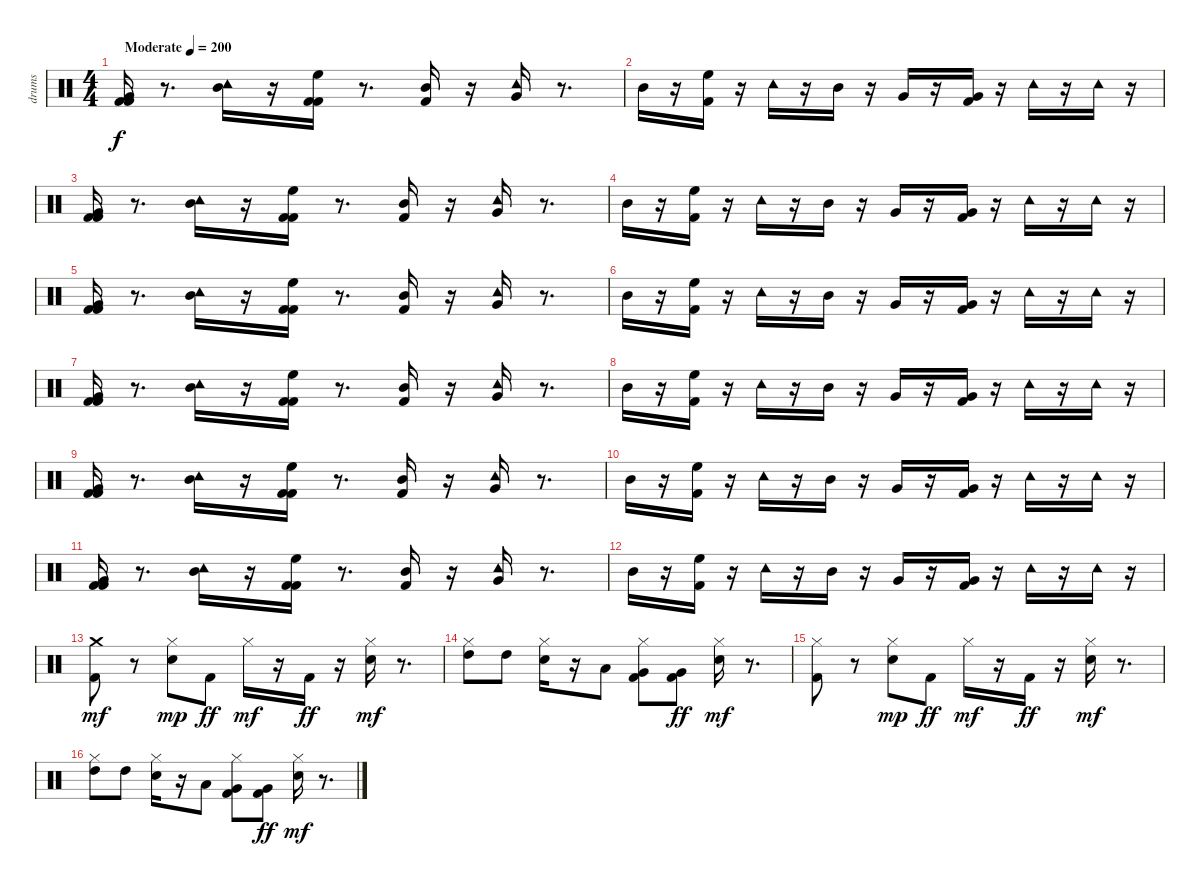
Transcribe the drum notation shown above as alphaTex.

\track ("drums" "drums") {instrument percussion}
\staff {score}
\articulation defaults
\ts (4 4)
\tempo (200 "Moderate")
\clef neutral
\ks c
("Very Low Tom (hit)" "Kick (hit) 2" "Kick (hit) 2").16{dy f} r.8{d} ("Tambourine (hit)" "Mid Tom (hit)").16 r.16 ("High Floor Tom (hit)" "Kick (hit) 2" "Kick (hit) 2").16 r.8{d} ("Kick (hit) 2" "Mid Tom (hit)").16 r.16 ("Tambourine (hit)" "Very Low Tom (hit)").16 r.8{d} |
"Mid Tom (hit)".16 r.16 ("Kick (hit) 2" "High Floor Tom (hit)").16 r.16 "Tambourine (hit)".16 r.16 "Mid Tom (hit)".16 r.16 "Very Low Tom (hit)".16 r.16 ("Kick (hit) 2" "Very Low Tom (hit)").16 r.16 "Tambourine (hit)".16 r.16 "Tambourine (hit)".16 r.16 |
("Very Low Tom (hit)" "Kick (hit) 2" "Kick (hit) 2").16 r.8{d} ("Tambourine (hit)" "Mid Tom (hit)").16 r.16 ("High Floor Tom (hit)" "Kick (hit) 2" "Kick (hit) 2").16 r.8{d} ("Kick (hit) 2" "Mid Tom (hit)").16 r.16 ("Tambourine (hit)" "Very Low Tom (hit)").16 r.8{d} |
"Mid Tom (hit)".16 r.16 ("Kick (hit) 2" "High Floor Tom (hit)").16 r.16 "Tambourine (hit)".16 r.16 "Mid Tom (hit)".16 r.16 "Very Low Tom (hit)".16 r.16 ("Kick (hit) 2" "Very Low Tom (hit)").16 r.16 "Tambourine (hit)".16 r.16 "Tambourine (hit)".16 r.16 |
("Very Low Tom (hit)" "Kick (hit) 2" "Kick (hit) 2").16 r.8{d} ("Tambourine (hit)" "Mid Tom (hit)").16 r.16 ("High Floor Tom (hit)" "Kick (hit) 2" "Kick (hit) 2").16 r.8{d} ("Kick (hit) 2" "Mid Tom (hit)").16 r.16 ("Tambourine (hit)" "Very Low Tom (hit)").16 r.8{d} |
"Mid Tom (hit)".16 r.16 ("Kick (hit) 2" "High Floor Tom (hit)").16 r.16 "Tambourine (hit)".16 r.16 "Mid Tom (hit)".16 r.16 "Very Low Tom (hit)".16 r.16 ("Kick (hit) 2" "Very Low Tom (hit)").16 r.16 "Tambourine (hit)".16 r.16 "Tambourine (hit)".16 r.16 |
("Very Low Tom (hit)" "Kick (hit) 2" "Kick (hit) 2").16 r.8{d} ("Tambourine (hit)" "Mid Tom (hit)").16 r.16 ("High Floor Tom (hit)" "Kick (hit) 2" "Kick (hit) 2").16 r.8{d} ("Kick (hit) 2" "Mid Tom (hit)").16 r.16 ("Tambourine (hit)" "Very Low Tom (hit)").16 r.8{d} |
"Mid Tom (hit)".16 r.16 ("Kick (hit) 2" "High Floor Tom (hit)").16 r.16 "Tambourine (hit)".16 r.16 "Mid Tom (hit)".16 r.16 "Very Low Tom (hit)".16 r.16 ("Kick (hit) 2" "Very Low Tom (hit)").16 r.16 "Tambourine (hit)".16 r.16 "Tambourine (hit)".16 r.16 |
("Very Low Tom (hit)" "Kick (hit) 2" "Kick (hit) 2").16 r.8{d} ("Tambourine (hit)" "Mid Tom (hit)").16 r.16 ("High Floor Tom (hit)" "Kick (hit) 2" "Kick (hit) 2").16 r.8{d} ("Kick (hit) 2" "Mid Tom (hit)").16 r.16 ("Tambourine (hit)" "Very Low Tom (hit)").16 r.8{d} |
"Mid Tom (hit)".16 r.16 ("Kick (hit) 2" "High Floor Tom (hit)").16 r.16 "Tambourine (hit)".16 r.16 "Mid Tom (hit)".16 r.16 "Very Low Tom (hit)".16 r.16 ("Kick (hit) 2" "Very Low Tom (hit)").16 r.16 "Tambourine (hit)".16 r.16 "Tambourine (hit)".16 r.16 |
("Very Low Tom (hit)" "Kick (hit) 2" "Kick (hit) 2").16 r.8{d} ("Tambourine (hit)" "Mid Tom (hit)").16 r.16 ("High Floor Tom (hit)" "Kick (hit) 2" "Kick (hit) 2").16 r.8{d} ("Kick (hit) 2" "Mid Tom (hit)").16 r.16 ("Tambourine (hit)" "Very Low Tom (hit)").16 r.8{d} |
"Mid Tom (hit)".16 r.16 ("Kick (hit) 2" "High Floor Tom (hit)").16 r.16 "Tambourine (hit)".16 r.16 "Mid Tom (hit)".16 r.16 "Very Low Tom (hit)".16 r.16 ("Kick (hit) 2" "Very Low Tom (hit)").16 r.16 "Tambourine (hit)".16 r.16 "Tambourine (hit)".16 r.16 |
("Kick (hit) 2" "Crash medium (hit)").8{dy mf} r.8 ("Snare (hit) 2" "Hi-Hat (closed)").8{dy mp} "Kick (hit) 2".8{dy ff} "Hi-Hat (closed)".16{dy mf} r.16 "Kick (hit) 2".16{dy ff} r.16 ("Snare (hit) 2" "Hi-Hat (closed)").16{dy mf} r.8{d} |
("High Tom (hit)" "Hi-Hat (closed)").8 "High Tom (hit)".8 ("Snare (hit) 2" "Hi-Hat (closed)").16 r.16 "Low Tom (hit)".8 ("Very Low Tom (hit)" "Kick (hit) 2" "Hi-Hat (closed)").8 ("Very Low Tom (hit)" "Kick (hit) 2").8{dy ff} ("Snare (hit) 2" "Hi-Hat (closed)").16{dy mf} r.8{d} |
("Kick (hit) 2" "Hi-Hat (closed)").8 r.8 ("Snare (hit) 2" "Hi-Hat (closed)").8{dy mp} "Kick (hit) 2".8{dy ff} "Hi-Hat (closed)".16{dy mf} r.16 "Kick (hit) 2".16{dy ff} r.16 ("Snare (hit) 2" "Hi-Hat (closed)").16{dy mf} r.8{d} |
("High Tom (hit)" "Hi-Hat (closed)").8 "High Tom (hit)".8 ("Snare (hit) 2" "Hi-Hat (closed)").16 r.16 "Low Tom (hit)".8 ("Very Low Tom (hit)" "Kick (hit) 2" "Hi-Hat (closed)").8 ("Very Low Tom (hit)" "Kick (hit) 2").8{dy ff} ("Snare (hit) 2" "Hi-Hat (closed)").16{dy mf} r.8{d}
